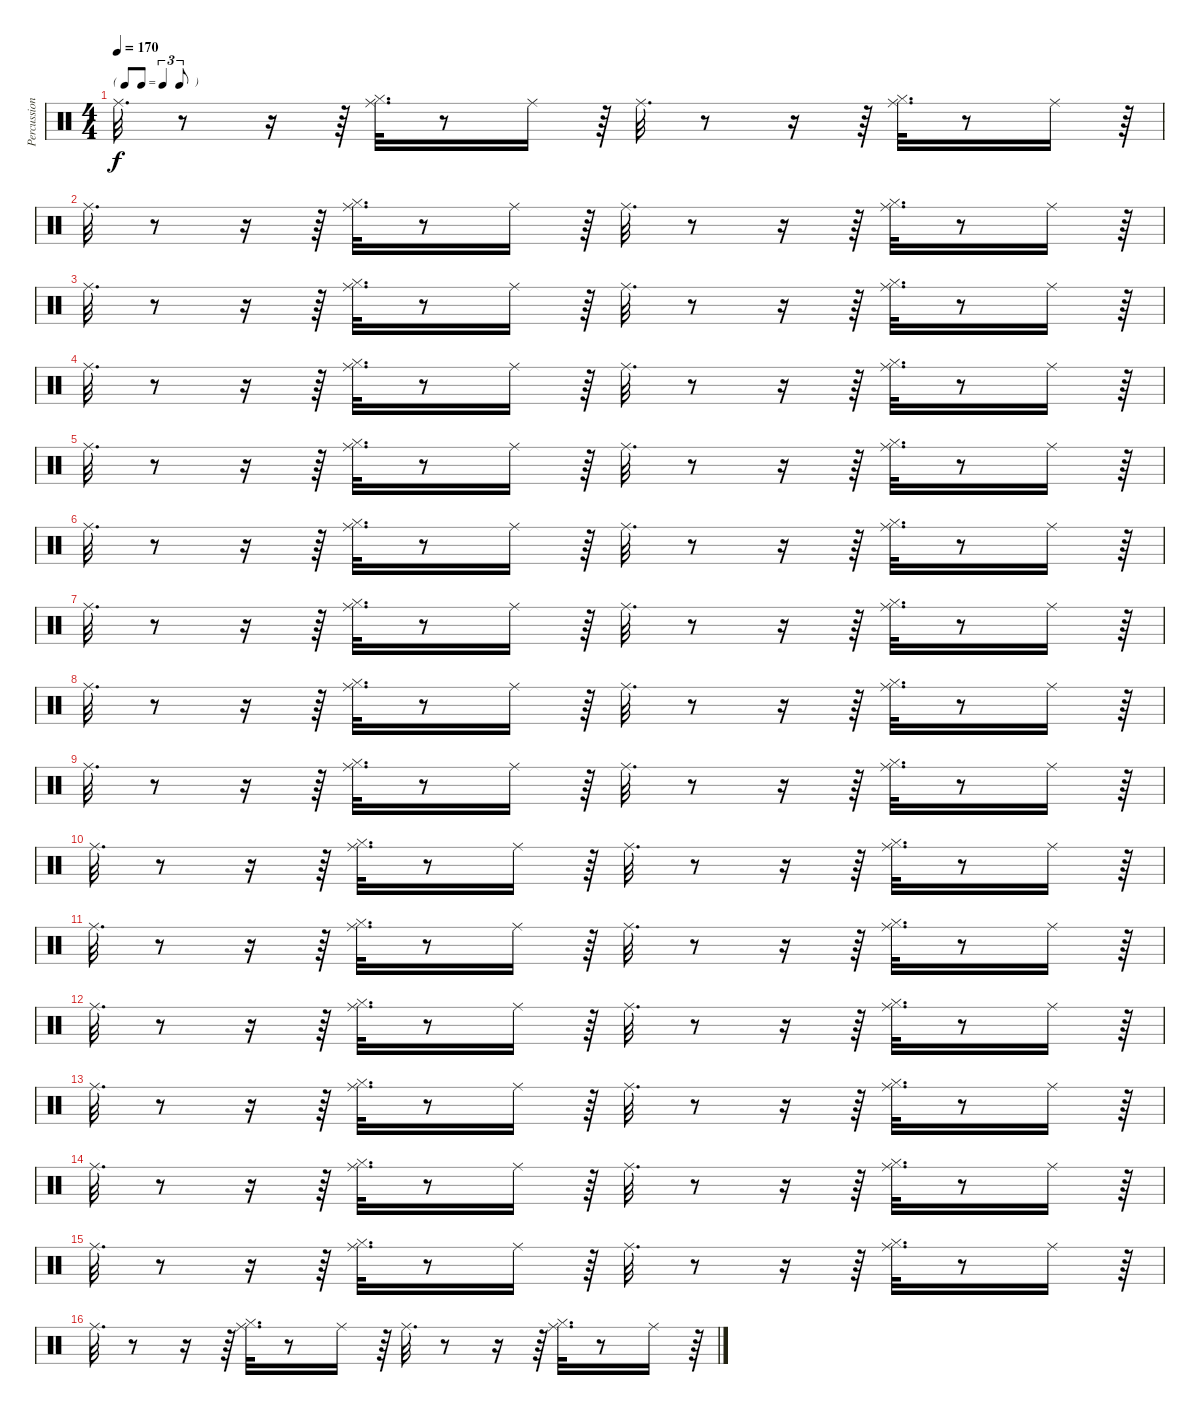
\track ("Percussions" "Percussion") {instrument percussion}
\staff {score}
\articulation defaults
\ts (4 4)
\tf triplet8th
\tempo 170
\clef neutral
\ks c "Ride (middle)".32{d dy f}
r.8 r.16 r.64 ("Hi-Hat (closed)" "Ride (middle)").32{d} r.8 "Ride (middle)".16 r.64 "Ride (middle)".32{d} r.8 r.16 r.64 ("Hi-Hat (closed)" "Ride (middle)").32{d} r.8 "Ride (middle)".16 r.64 |
"Ride (middle)".32{d} r.8 r.16 r.64 ("Hi-Hat (closed)" "Ride (middle)").32{d} r.8 "Ride (middle)".16 r.64 "Ride (middle)".32{d} r.8 r.16 r.64 ("Hi-Hat (closed)" "Ride (middle)").32{d} r.8 "Ride (middle)".16 r.64 |
"Ride (middle)".32{d} r.8 r.16 r.64 ("Hi-Hat (closed)" "Ride (middle)").32{d} r.8 "Ride (middle)".16 r.64 "Ride (middle)".32{d} r.8 r.16 r.64 ("Hi-Hat (closed)" "Ride (middle)").32{d} r.8 "Ride (middle)".16 r.64 |
"Ride (middle)".32{d} r.8 r.16 r.64 ("Hi-Hat (closed)" "Ride (middle)").32{d} r.8 "Ride (middle)".16 r.64 "Ride (middle)".32{d} r.8 r.16 r.64 ("Hi-Hat (closed)" "Ride (middle)").32{d} r.8 "Ride (middle)".16 r.64 |
"Ride (middle)".32{d} r.8 r.16 r.64 ("Hi-Hat (closed)" "Ride (middle)").32{d} r.8 "Ride (middle)".16 r.64 "Ride (middle)".32{d} r.8 r.16 r.64 ("Hi-Hat (closed)" "Ride (middle)").32{d} r.8 "Ride (middle)".16 r.64 |
"Ride (middle)".32{d} r.8 r.16 r.64 ("Hi-Hat (closed)" "Ride (middle)").32{d} r.8 "Ride (middle)".16 r.64 "Ride (middle)".32{d} r.8 r.16 r.64 ("Hi-Hat (closed)" "Ride (middle)").32{d} r.8 "Ride (middle)".16 r.64 |
"Ride (middle)".32{d} r.8 r.16 r.64 ("Hi-Hat (closed)" "Ride (middle)").32{d} r.8 "Ride (middle)".16 r.64 "Ride (middle)".32{d} r.8 r.16 r.64 ("Hi-Hat (closed)" "Ride (middle)").32{d} r.8 "Ride (middle)".16 r.64 |
"Ride (middle)".32{d} r.8 r.16 r.64 ("Hi-Hat (closed)" "Ride (middle)").32{d} r.8 "Ride (middle)".16 r.64 "Ride (middle)".32{d} r.8 r.16 r.64 ("Hi-Hat (closed)" "Ride (middle)").32{d} r.8 "Ride (middle)".16 r.64 |
"Ride (middle)".32{d} r.8 r.16 r.64 ("Hi-Hat (closed)" "Ride (middle)").32{d} r.8 "Ride (middle)".16 r.64 "Ride (middle)".32{d} r.8 r.16 r.64 ("Hi-Hat (closed)" "Ride (middle)").32{d} r.8 "Ride (middle)".16 r.64 |
"Ride (middle)".32{d} r.8 r.16 r.64 ("Hi-Hat (closed)" "Ride (middle)").32{d} r.8 "Ride (middle)".16 r.64 "Ride (middle)".32{d} r.8 r.16 r.64 ("Hi-Hat (closed)" "Ride (middle)").32{d} r.8 "Ride (middle)".16 r.64 |
"Ride (middle)".32{d} r.8 r.16 r.64 ("Hi-Hat (closed)" "Ride (middle)").32{d} r.8 "Ride (middle)".16 r.64 "Ride (middle)".32{d} r.8 r.16 r.64 ("Hi-Hat (closed)" "Ride (middle)").32{d} r.8 "Ride (middle)".16 r.64 |
"Ride (middle)".32{d} r.8 r.16 r.64 ("Hi-Hat (closed)" "Ride (middle)").32{d} r.8 "Ride (middle)".16 r.64 "Ride (middle)".32{d} r.8 r.16 r.64 ("Hi-Hat (closed)" "Ride (middle)").32{d} r.8 "Ride (middle)".16 r.64 |
"Ride (middle)".32{d} r.8 r.16 r.64 ("Hi-Hat (closed)" "Ride (middle)").32{d} r.8 "Ride (middle)".16 r.64 "Ride (middle)".32{d} r.8 r.16 r.64 ("Hi-Hat (closed)" "Ride (middle)").32{d} r.8 "Ride (middle)".16 r.64 |
"Ride (middle)".32{d} r.8 r.16 r.64 ("Hi-Hat (closed)" "Ride (middle)").32{d} r.8 "Ride (middle)".16 r.64 "Ride (middle)".32{d} r.8 r.16 r.64 ("Hi-Hat (closed)" "Ride (middle)").32{d} r.8 "Ride (middle)".16 r.64 |
"Ride (middle)".32{d} r.8 r.16 r.64 ("Hi-Hat (closed)" "Ride (middle)").32{d} r.8 "Ride (middle)".16 r.64 "Ride (middle)".32{d} r.8 r.16 r.64 ("Hi-Hat (closed)" "Ride (middle)").32{d} r.8 "Ride (middle)".16 r.64 |
"Ride (middle)".32{d} r.8 r.16 r.64 ("Hi-Hat (closed)" "Ride (middle)").32{d} r.8 "Ride (middle)".16 r.64 "Ride (middle)".32{d} r.8 r.16 r.64 ("Hi-Hat (closed)" "Ride (middle)").32{d} r.8 "Ride (middle)".16 r.64
